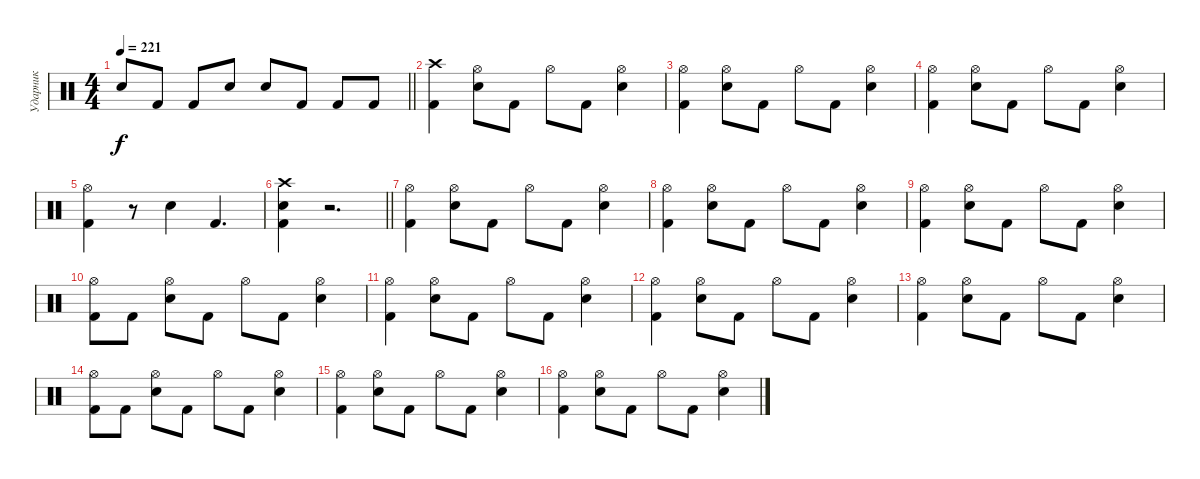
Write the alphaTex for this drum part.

\track ("Ударник" "Ударник") {instrument percussion}
\staff {score}
\articulation defaults
\ts (4 4)
\tempo 221
\clef neutral
\barLineRight lightlight
\ks c "Snare (hit) 2".8{dy f} "Kick (hit) 2".8 "Kick (hit) 2".8 "Snare (hit) 2".8 "Snare (hit) 2".8 "Kick (hit) 2".8 "Kick (hit) 2".8 "Kick (hit) 2".8
|
("Kick (hit) 2" "Crash high (hit)").4 ("Snare (hit) 2" "Hi-Hat (open)").8 "Kick (hit) 2".8 "Hi-Hat (open)".8 "Kick (hit) 2".8 ("Snare (hit) 2" "Hi-Hat (open)").4 |
("Kick (hit) 2" "Hi-Hat (open)").4 ("Snare (hit) 2" "Hi-Hat (open)").8 "Kick (hit) 2".8 "Hi-Hat (open)".8 "Kick (hit) 2".8 ("Snare (hit) 2" "Hi-Hat (open)").4 |
("Kick (hit) 2" "Hi-Hat (open)").4 ("Snare (hit) 2" "Hi-Hat (open)").8 "Kick (hit) 2".8 "Hi-Hat (open)".8 "Kick (hit) 2".8 ("Snare (hit) 2" "Hi-Hat (open)").4 |
("Kick (hit) 2" "Hi-Hat (open)").4 r.8 "Snare (hit) 2".4 "Kick (hit) 2".4{d} |
\barLineRight lightlight
("Kick (hit) 2" "Snare (hit) 2" "Crash high (hit)").4 r.2{d} |
("Kick (hit) 2" "Hi-Hat (open)").4 ("Snare (hit) 2" "Hi-Hat (open)").8 "Kick (hit) 2".8 "Hi-Hat (open)".8 "Kick (hit) 2".8 ("Snare (hit) 2" "Hi-Hat (open)").4 |
("Kick (hit) 2" "Hi-Hat (open)").4 ("Snare (hit) 2" "Hi-Hat (open)").8 "Kick (hit) 2".8 "Hi-Hat (open)".8 "Kick (hit) 2".8 ("Snare (hit) 2" "Hi-Hat (open)").4 |
("Kick (hit) 2" "Hi-Hat (open)").4 ("Snare (hit) 2" "Hi-Hat (open)").8 "Kick (hit) 2".8 "Hi-Hat (open)".8 "Kick (hit) 2".8 ("Snare (hit) 2" "Hi-Hat (open)").4 |
("Kick (hit) 2" "Hi-Hat (open)").8 "Kick (hit) 2".8 ("Snare (hit) 2" "Hi-Hat (open)").8 "Kick (hit) 2".8 "Hi-Hat (open)".8 "Kick (hit) 2".8 ("Snare (hit) 2" "Hi-Hat (open)").4 |
("Kick (hit) 2" "Hi-Hat (open)").4 ("Snare (hit) 2" "Hi-Hat (open)").8 "Kick (hit) 2".8 "Hi-Hat (open)".8 "Kick (hit) 2".8 ("Snare (hit) 2" "Hi-Hat (open)").4 |
("Kick (hit) 2" "Hi-Hat (open)").4 ("Snare (hit) 2" "Hi-Hat (open)").8 "Kick (hit) 2".8 "Hi-Hat (open)".8 "Kick (hit) 2".8 ("Snare (hit) 2" "Hi-Hat (open)").4 |
("Kick (hit) 2" "Hi-Hat (open)").4 ("Snare (hit) 2" "Hi-Hat (open)").8 "Kick (hit) 2".8 "Hi-Hat (open)".8 "Kick (hit) 2".8 ("Snare (hit) 2" "Hi-Hat (open)").4 |
("Kick (hit) 2" "Hi-Hat (open)").8 "Kick (hit) 2".8 ("Snare (hit) 2" "Hi-Hat (open)").8 "Kick (hit) 2".8 "Hi-Hat (open)".8 "Kick (hit) 2".8 ("Snare (hit) 2" "Hi-Hat (open)").4 |
("Kick (hit) 2" "Hi-Hat (open)").4 ("Snare (hit) 2" "Hi-Hat (open)").8 "Kick (hit) 2".8 "Hi-Hat (open)".8 "Kick (hit) 2".8 ("Snare (hit) 2" "Hi-Hat (open)").4 |
("Kick (hit) 2" "Hi-Hat (open)").4 ("Snare (hit) 2" "Hi-Hat (open)").8 "Kick (hit) 2".8 "Hi-Hat (open)".8 "Kick (hit) 2".8 ("Snare (hit) 2" "Hi-Hat (open)").4
